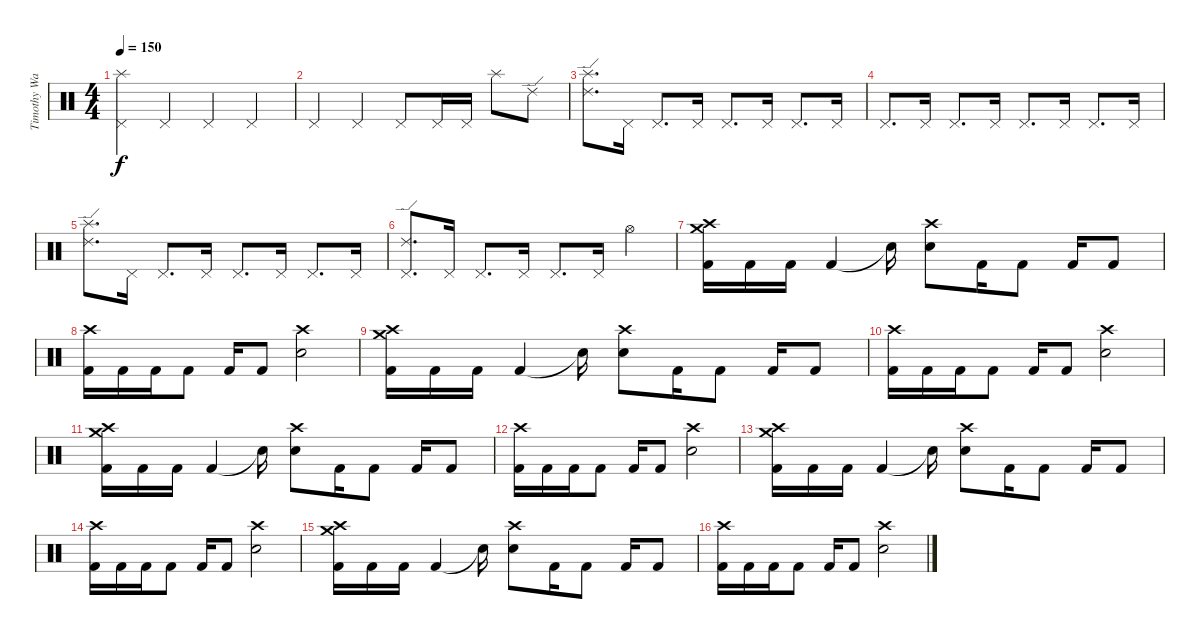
\track ("Timothy Watts" "Timothy Wa") {instrument percussion}
\staff {score}
\articulation defaults
\ts (4 4)
\tempo 150
\clef neutral
\ks c
("Splash (hit)" "Pedal Hi-Hat (hit)").4{dy f} "Pedal Hi-Hat (hit)".4 "Pedal Hi-Hat (hit)".4 "Pedal Hi-Hat (hit)".4 |
"Pedal Hi-Hat (hit)".4 "Pedal Hi-Hat (hit)".4 "Pedal Hi-Hat (hit)".8 "Pedal Hi-Hat (hit)".16 "Pedal Hi-Hat (hit)".16 "Splash (hit)".8 "Ride (edge) 2".8 |
("Ride (edge) 2" "Splash (hit)").8{d} "Pedal Hi-Hat (hit)".16 "Pedal Hi-Hat (hit)".8{d} "Pedal Hi-Hat (hit)".16 "Pedal Hi-Hat (hit)".8{d} "Pedal Hi-Hat (hit)".16 "Pedal Hi-Hat (hit)".8{d} "Pedal Hi-Hat (hit)".16 |
"Pedal Hi-Hat (hit)".8{d} "Pedal Hi-Hat (hit)".16 "Pedal Hi-Hat (hit)".8{d} "Pedal Hi-Hat (hit)".16 "Pedal Hi-Hat (hit)".8{d} "Pedal Hi-Hat (hit)".16 "Pedal Hi-Hat (hit)".8{d} "Pedal Hi-Hat (hit)".16 |
("Ride (edge) 2" "Splash (hit)").8{d} "Pedal Hi-Hat (hit)".16 "Pedal Hi-Hat (hit)".8{d} "Pedal Hi-Hat (hit)".16 "Pedal Hi-Hat (hit)".8{d} "Pedal Hi-Hat (hit)".16 "Pedal Hi-Hat (hit)".8{d} "Pedal Hi-Hat (hit)".16 |
("Ride (edge) 2" "Pedal Hi-Hat (hit)").8{d} "Pedal Hi-Hat (hit)".16 "Pedal Hi-Hat (hit)".8{d} "Pedal Hi-Hat (hit)".16 "Pedal Hi-Hat (hit)".8{d} "Pedal Hi-Hat (hit)".16 "Hi-Hat (open)".4 |
("Crash medium (hit)" "Crash high (hit)" "Kick (hit) 2").16 "Kick (hit) 2".16 "Kick (hit) 2".16 "Kick (hit) 2".4 "Snare (hit)"{t}.16 ("Crash high (hit)" "Electric Snare (hit)").8 "Kick (hit) 2".16 "Kick (hit) 2".8 "Kick (hit) 2".16 "Kick (hit) 2".8 |
("Crash high (hit)" "Kick (hit) 2").16 "Kick (hit) 2".16 "Kick (hit) 2".16 "Kick (hit) 2".8 "Kick (hit) 2".16 "Kick (hit) 2".8 ("Crash high (hit)" "Electric Snare (hit)").2 |
("Crash medium (hit)" "Crash high (hit)" "Kick (hit) 2").16 "Kick (hit) 2".16 "Kick (hit) 2".16 "Kick (hit) 2".4 "Snare (hit)"{t}.16 ("Crash high (hit)" "Electric Snare (hit)").8 "Kick (hit) 2".16 "Kick (hit) 2".8 "Kick (hit) 2".16 "Kick (hit) 2".8 |
("Crash high (hit)" "Kick (hit) 2").16 "Kick (hit) 2".16 "Kick (hit) 2".16 "Kick (hit) 2".8 "Kick (hit) 2".16 "Kick (hit) 2".8 ("Crash high (hit)" "Electric Snare (hit)").2 |
("Crash medium (hit)" "Crash high (hit)" "Kick (hit) 2").16 "Kick (hit) 2".16 "Kick (hit) 2".16 "Kick (hit) 2".4 "Snare (hit)"{t}.16 ("Crash high (hit)" "Electric Snare (hit)").8 "Kick (hit) 2".16 "Kick (hit) 2".8 "Kick (hit) 2".16 "Kick (hit) 2".8 |
("Crash high (hit)" "Kick (hit) 2").16 "Kick (hit) 2".16 "Kick (hit) 2".16 "Kick (hit) 2".8 "Kick (hit) 2".16 "Kick (hit) 2".8 ("Crash high (hit)" "Electric Snare (hit)").2 |
("Crash medium (hit)" "Crash high (hit)" "Kick (hit) 2").16 "Kick (hit) 2".16 "Kick (hit) 2".16 "Kick (hit) 2".4 "Snare (hit)"{t}.16 ("Crash high (hit)" "Electric Snare (hit)").8 "Kick (hit) 2".16 "Kick (hit) 2".8 "Kick (hit) 2".16 "Kick (hit) 2".8 |
("Crash high (hit)" "Kick (hit) 2").16 "Kick (hit) 2".16 "Kick (hit) 2".16 "Kick (hit) 2".8 "Kick (hit) 2".16 "Kick (hit) 2".8 ("Crash high (hit)" "Electric Snare (hit)").2 |
("Crash medium (hit)" "Crash high (hit)" "Kick (hit) 2").16 "Kick (hit) 2".16 "Kick (hit) 2".16 "Kick (hit) 2".4 "Snare (hit)"{t}.16 ("Crash high (hit)" "Electric Snare (hit)").8 "Kick (hit) 2".16 "Kick (hit) 2".8 "Kick (hit) 2".16 "Kick (hit) 2".8 |
("Crash high (hit)" "Kick (hit) 2").16 "Kick (hit) 2".16 "Kick (hit) 2".16 "Kick (hit) 2".8 "Kick (hit) 2".16 "Kick (hit) 2".8 ("Crash high (hit)" "Electric Snare (hit)").2
